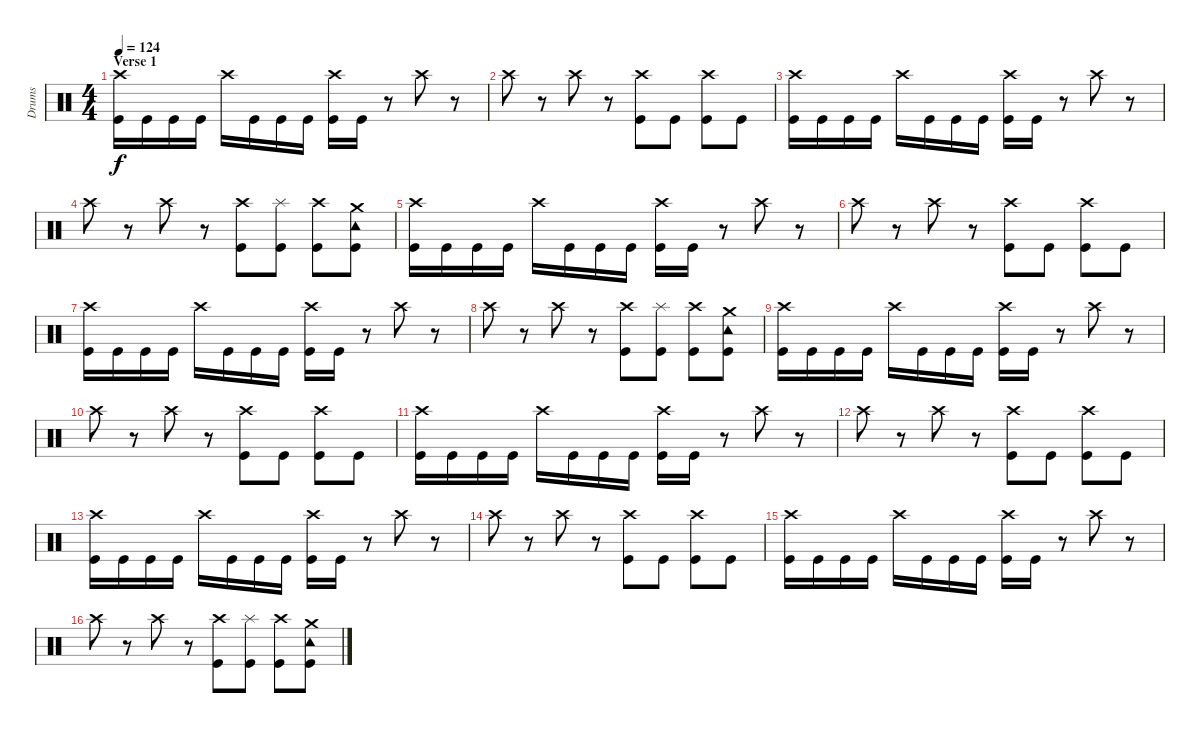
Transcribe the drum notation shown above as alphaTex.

\track ("Drums" "Drums") {instrument percussion}
\staff {score}
\articulation defaults
\ts (4 4)
\section ("" "Verse 1")
\tempo 124
\clef neutral
\ks c
("Crash high (hit)" "Kick (hit)").16{dy f} "Kick (hit)".16 "Kick (hit)".16 "Kick (hit)".16 "Crash high (hit)".16 "Kick (hit)".16 "Kick (hit)".16 "Kick (hit)".16 ("Crash high (hit)" "Kick (hit)").16 "Kick (hit)".16 r.8 "Crash high (hit)".8 r.8 |
"Crash high (hit)".8 r.8 "Crash high (hit)".8 r.8 ("Crash high (hit)" "Kick (hit)").8 "Kick (hit)".8 ("Crash high (hit)" "Kick (hit)").8 "Kick (hit)".8 |
("Crash high (hit)" "Kick (hit)").16 "Kick (hit)".16 "Kick (hit)".16 "Kick (hit)".16 "Crash high (hit)".16 "Kick (hit)".16 "Kick (hit)".16 "Kick (hit)".16 ("Crash high (hit)" "Kick (hit)").16 "Kick (hit)".16 r.8 "Crash high (hit)".8 r.8 |
"Crash high (hit)".8 r.8 "Crash high (hit)".8 r.8 ("Crash high (hit)" "Kick (hit)").8 ("Splash (hit)" "Kick (hit)").8 ("Crash high (hit)" "Kick (hit)").8 ("Tambourine (hit)" "Crash medium (hit)" "Kick (hit)").8 |
("Crash high (hit)" "Kick (hit)").16 "Kick (hit)".16 "Kick (hit)".16 "Kick (hit)".16 "Crash high (hit)".16 "Kick (hit)".16 "Kick (hit)".16 "Kick (hit)".16 ("Crash high (hit)" "Kick (hit)").16 "Kick (hit)".16 r.8 "Crash high (hit)".8 r.8 |
"Crash high (hit)".8 r.8 "Crash high (hit)".8 r.8 ("Crash high (hit)" "Kick (hit)").8 "Kick (hit)".8 ("Crash high (hit)" "Kick (hit)").8 "Kick (hit)".8 |
("Crash high (hit)" "Kick (hit)").16 "Kick (hit)".16 "Kick (hit)".16 "Kick (hit)".16 "Crash high (hit)".16 "Kick (hit)".16 "Kick (hit)".16 "Kick (hit)".16 ("Crash high (hit)" "Kick (hit)").16 "Kick (hit)".16 r.8 "Crash high (hit)".8 r.8 |
"Crash high (hit)".8 r.8 "Crash high (hit)".8 r.8 ("Crash high (hit)" "Kick (hit)").8 ("Splash (hit)" "Kick (hit)").8 ("Crash high (hit)" "Kick (hit)").8 ("Tambourine (hit)" "Crash medium (hit)" "Kick (hit)").8 |
("Crash high (hit)" "Kick (hit)").16 "Kick (hit)".16 "Kick (hit)".16 "Kick (hit)".16 "Crash high (hit)".16 "Kick (hit)".16 "Kick (hit)".16 "Kick (hit)".16 ("Crash high (hit)" "Kick (hit)").16 "Kick (hit)".16 r.8 "Crash high (hit)".8 r.8 |
"Crash high (hit)".8 r.8 "Crash high (hit)".8 r.8 ("Crash high (hit)" "Kick (hit)").8 "Kick (hit)".8 ("Crash high (hit)" "Kick (hit)").8 "Kick (hit)".8 |
("Crash high (hit)" "Kick (hit)").16 "Kick (hit)".16 "Kick (hit)".16 "Kick (hit)".16 "Crash high (hit)".16 "Kick (hit)".16 "Kick (hit)".16 "Kick (hit)".16 ("Crash high (hit)" "Kick (hit)").16 "Kick (hit)".16 r.8 "Crash high (hit)".8 r.8 |
"Crash high (hit)".8 r.8 "Crash high (hit)".8 r.8 ("Crash high (hit)" "Kick (hit)").8 "Kick (hit)".8 ("Crash high (hit)" "Kick (hit)").8 "Kick (hit)".8 |
("Crash high (hit)" "Kick (hit)").16 "Kick (hit)".16 "Kick (hit)".16 "Kick (hit)".16 "Crash high (hit)".16 "Kick (hit)".16 "Kick (hit)".16 "Kick (hit)".16 ("Crash high (hit)" "Kick (hit)").16 "Kick (hit)".16 r.8 "Crash high (hit)".8 r.8 |
"Crash high (hit)".8 r.8 "Crash high (hit)".8 r.8 ("Crash high (hit)" "Kick (hit)").8 "Kick (hit)".8 ("Crash high (hit)" "Kick (hit)").8 "Kick (hit)".8 |
("Crash high (hit)" "Kick (hit)").16 "Kick (hit)".16 "Kick (hit)".16 "Kick (hit)".16 "Crash high (hit)".16 "Kick (hit)".16 "Kick (hit)".16 "Kick (hit)".16 ("Crash high (hit)" "Kick (hit)").16 "Kick (hit)".16 r.8 "Crash high (hit)".8 r.8 |
"Crash high (hit)".8 r.8 "Crash high (hit)".8 r.8 ("Crash high (hit)" "Kick (hit)").8 ("Splash (hit)" "Kick (hit)").8 ("Crash high (hit)" "Kick (hit)").8 ("Tambourine (hit)" "Crash medium (hit)" "Kick (hit)").8
